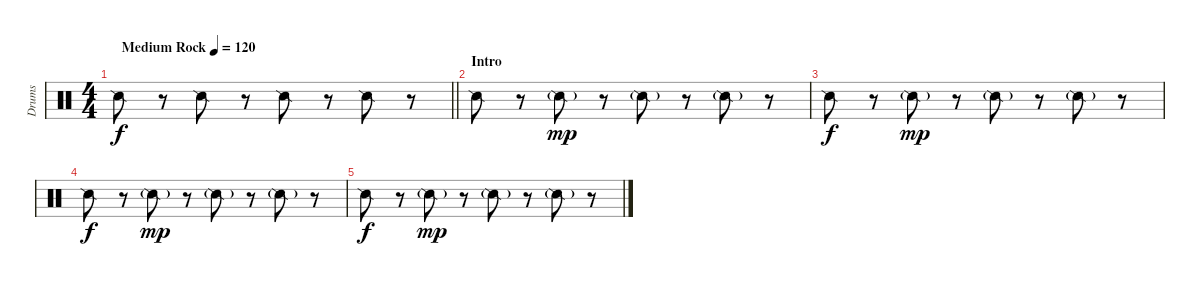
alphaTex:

\track ("Drums" "Drums") {mute instrument percussion}
\staff {score}
\articulation defaults
\ts (4 4)
\tempo (120 "Medium Rock")
\clef neutral
\barLineRight lightlight
\ks c "Snare (side stick) 2".8{dy f}
r.8 "Snare (side stick) 2".8 r.8 "Snare (side stick) 2".8 r.8 "Snare (side stick) 2".8 r.8 |
\section ("" "Intro")
"Snare (side stick) 2".8 r.8 "Snare (side stick) 2"{g}.8{dy mp} r.8 "Snare (side stick) 2"{g}.8 r.8 "Snare (side stick) 2"{g}.8 r.8 |
"Snare (side stick) 2".8{dy f} r.8 "Snare (side stick) 2"{g}.8{dy mp} r.8 "Snare (side stick) 2"{g}.8 r.8 "Snare (side stick) 2"{g}.8 r.8 |
"Snare (side stick) 2".8{dy f} r.8 "Snare (side stick) 2"{g}.8{dy mp} r.8 "Snare (side stick) 2"{g}.8 r.8 "Snare (side stick) 2"{g}.8 r.8 |
"Snare (side stick) 2".8{dy f} r.8 "Snare (side stick) 2"{g}.8{dy mp} r.8 "Snare (side stick) 2"{g}.8 r.8 "Snare (side stick) 2"{g}.8 r.8
